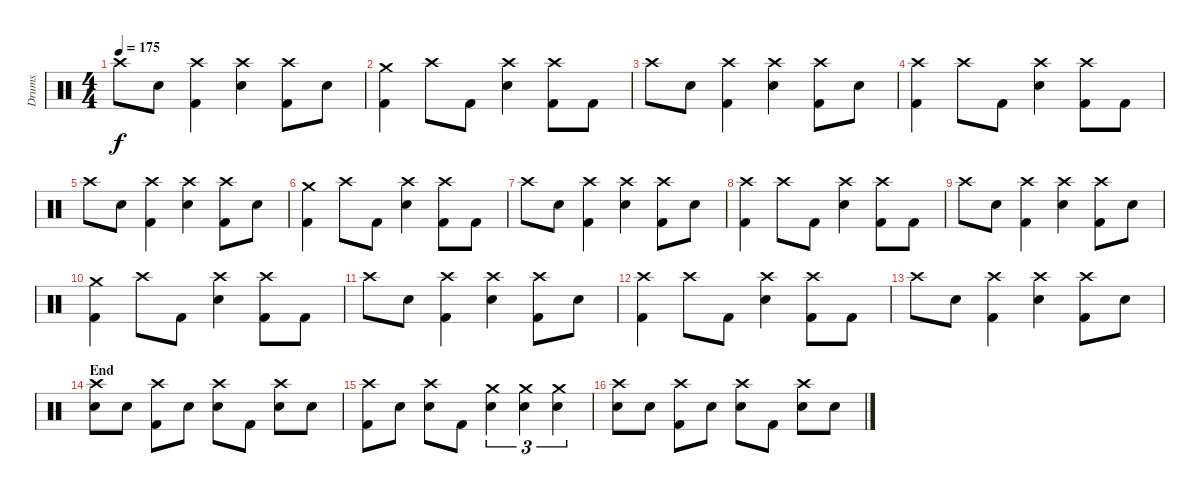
\track ("Drums" "Drums") {instrument percussion}
\staff {score}
\articulation defaults
\ts (4 4)
\tempo 175
\clef neutral
\ks c "Crash high (hit)".8{dy f} "Electric Snare (hit)".8
("Crash high (hit)" "Kick (hit) 2").4 ("Crash high (hit)" "Electric Snare (hit)").4 ("Crash high (hit)" "Kick (hit) 2").8 "Electric Snare (hit)".8 |
("Crash medium (hit)" "Kick (hit) 2").4 "Crash high (hit)".8 "Kick (hit) 2".8 ("Crash high (hit)" "Electric Snare (hit)").4 ("Crash high (hit)" "Kick (hit) 2").8 "Kick (hit) 2".8 |
"Crash high (hit)".8 "Electric Snare (hit)".8 ("Crash high (hit)" "Kick (hit) 2").4 ("Crash high (hit)" "Electric Snare (hit)").4 ("Crash high (hit)" "Kick (hit) 2").8 "Electric Snare (hit)".8 |
("Crash high (hit)" "Kick (hit) 2").4 "Crash high (hit)".8 "Kick (hit) 2".8 ("Crash high (hit)" "Electric Snare (hit)").4 ("Crash high (hit)" "Kick (hit) 2").8 "Kick (hit) 2".8 |
"Crash high (hit)".8 "Electric Snare (hit)".8 ("Crash high (hit)" "Kick (hit) 2").4 ("Crash high (hit)" "Electric Snare (hit)").4 ("Crash high (hit)" "Kick (hit) 2").8 "Electric Snare (hit)".8 |
("Crash medium (hit)" "Kick (hit) 2").4 "Crash high (hit)".8 "Kick (hit) 2".8 ("Crash high (hit)" "Electric Snare (hit)").4 ("Crash high (hit)" "Kick (hit) 2").8 "Kick (hit) 2".8 |
"Crash high (hit)".8 "Electric Snare (hit)".8 ("Crash high (hit)" "Kick (hit) 2").4 ("Crash high (hit)" "Electric Snare (hit)").4 ("Crash high (hit)" "Kick (hit) 2").8 "Electric Snare (hit)".8 |
("Crash high (hit)" "Kick (hit) 2").4 "Crash high (hit)".8 "Kick (hit) 2".8 ("Crash high (hit)" "Electric Snare (hit)").4 ("Crash high (hit)" "Kick (hit) 2").8 "Kick (hit) 2".8 |
"Crash high (hit)".8 "Electric Snare (hit)".8 ("Crash high (hit)" "Kick (hit) 2").4 ("Crash high (hit)" "Electric Snare (hit)").4 ("Crash high (hit)" "Kick (hit) 2").8 "Electric Snare (hit)".8 |
("Crash medium (hit)" "Kick (hit) 2").4 "Crash high (hit)".8 "Kick (hit) 2".8 ("Crash high (hit)" "Electric Snare (hit)").4 ("Crash high (hit)" "Kick (hit) 2").8 "Kick (hit) 2".8 |
"Crash high (hit)".8 "Electric Snare (hit)".8 ("Crash high (hit)" "Kick (hit) 2").4 ("Crash high (hit)" "Electric Snare (hit)").4 ("Crash high (hit)" "Kick (hit) 2").8 "Electric Snare (hit)".8 |
("Crash high (hit)" "Kick (hit) 2").4 "Crash high (hit)".8 "Kick (hit) 2".8 ("Crash high (hit)" "Electric Snare (hit)").4 ("Crash high (hit)" "Kick (hit) 2").8 "Kick (hit) 2".8 |
"Crash high (hit)".8 "Electric Snare (hit)".8 ("Crash high (hit)" "Kick (hit) 2").4 ("Crash high (hit)" "Electric Snare (hit)").4 ("Crash high (hit)" "Kick (hit) 2").8 "Electric Snare (hit)".8 |
\section ("" "End")
("Crash high (hit)" "Electric Snare (hit)").8 "Electric Snare (hit)".8 ("Crash high (hit)" "Kick (hit) 2").8 "Electric Snare (hit)".8 ("Crash high (hit)" "Electric Snare (hit)").8 "Kick (hit) 2".8 ("Crash high (hit)" "Electric Snare (hit)").8 "Electric Snare (hit)".8 |
("Crash high (hit)" "Kick (hit) 2").8 "Electric Snare (hit)".8 ("Crash high (hit)" "Electric Snare (hit)").8 "Kick (hit) 2".8 ("Crash medium (hit)" "Electric Snare (hit)").4{tu (3 2)} ("Crash medium (hit)" "Electric Snare (hit)").4{tu (3 2)} ("Crash medium (hit)" "Electric Snare (hit)").4{tu (3 2)} |
("Crash high (hit)" "Electric Snare (hit)").8 "Electric Snare (hit)".8 ("Crash high (hit)" "Kick (hit) 2").8 "Electric Snare (hit)".8 ("Crash high (hit)" "Electric Snare (hit)").8 "Kick (hit) 2".8 ("Crash high (hit)" "Electric Snare (hit)").8 "Electric Snare (hit)".8
